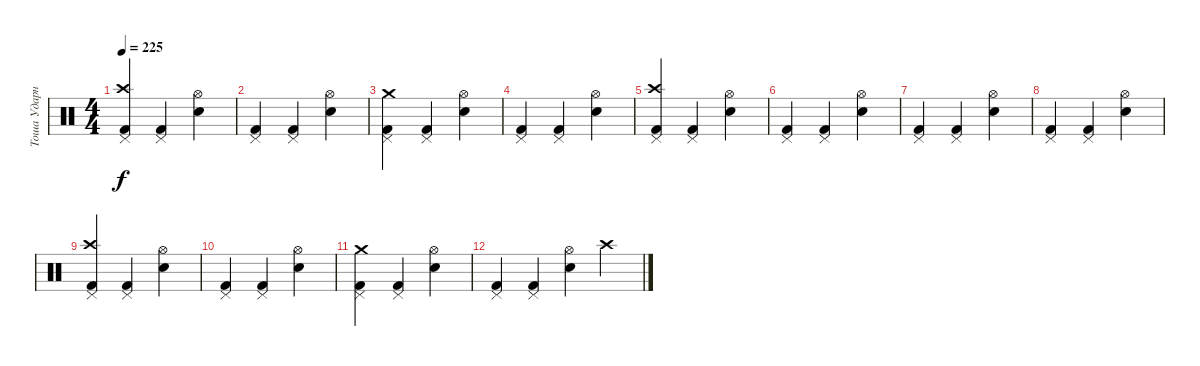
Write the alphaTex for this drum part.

\track ("Тоша Ударные" "Тоша Ударн") {instrument percussion}
\staff {score}
\articulation defaults
\ts (4 4)
\tempo 225
\clef neutral
\ks c
("Pedal Hi-Hat (hit)" "Crash high (hit)" "Kick (hit) 2").4{dy f} ("Pedal Hi-Hat (hit)" "Kick (hit) 2").4 ("Hi-Hat (open)" "Electric Snare (hit)").4 |
("Pedal Hi-Hat (hit)" "Kick (hit) 2").4 ("Pedal Hi-Hat (hit)" "Kick (hit) 2").4 ("Hi-Hat (open)" "Electric Snare (hit)").4 |
("Pedal Hi-Hat (hit)" "Crash medium (hit)" "Kick (hit) 2").4 ("Pedal Hi-Hat (hit)" "Kick (hit) 2").4 ("Hi-Hat (open)" "Electric Snare (hit)").4 |
("Pedal Hi-Hat (hit)" "Kick (hit) 2").4 ("Pedal Hi-Hat (hit)" "Kick (hit) 2").4 ("Hi-Hat (open)" "Electric Snare (hit)").4 |
("Pedal Hi-Hat (hit)" "Crash high (hit)" "Kick (hit) 2").4 ("Pedal Hi-Hat (hit)" "Kick (hit) 2").4 ("Hi-Hat (open)" "Electric Snare (hit)").4 |
("Pedal Hi-Hat (hit)" "Kick (hit) 2").4 ("Pedal Hi-Hat (hit)" "Kick (hit) 2").4 ("Hi-Hat (open)" "Electric Snare (hit)").4 |
("Pedal Hi-Hat (hit)" "Kick (hit) 2").4 ("Pedal Hi-Hat (hit)" "Kick (hit) 2").4 ("Hi-Hat (open)" "Electric Snare (hit)").4 |
("Pedal Hi-Hat (hit)" "Kick (hit) 2").4 ("Pedal Hi-Hat (hit)" "Kick (hit) 2").4 ("Hi-Hat (open)" "Electric Snare (hit)").4 |
("Pedal Hi-Hat (hit)" "Crash high (hit)" "Kick (hit) 2").4 ("Pedal Hi-Hat (hit)" "Kick (hit) 2").4 ("Hi-Hat (open)" "Electric Snare (hit)").4 |
("Pedal Hi-Hat (hit)" "Kick (hit) 2").4 ("Pedal Hi-Hat (hit)" "Kick (hit) 2").4 ("Hi-Hat (open)" "Electric Snare (hit)").4 |
("Pedal Hi-Hat (hit)" "Crash medium (hit)" "Kick (hit) 2").4 ("Pedal Hi-Hat (hit)" "Kick (hit) 2").4 ("Hi-Hat (open)" "Electric Snare (hit)").4 |
("Pedal Hi-Hat (hit)" "Kick (hit) 2").4 ("Pedal Hi-Hat (hit)" "Kick (hit) 2").4 ("Hi-Hat (open)" "Electric Snare (hit)").4 "Crash high (hit)".4
